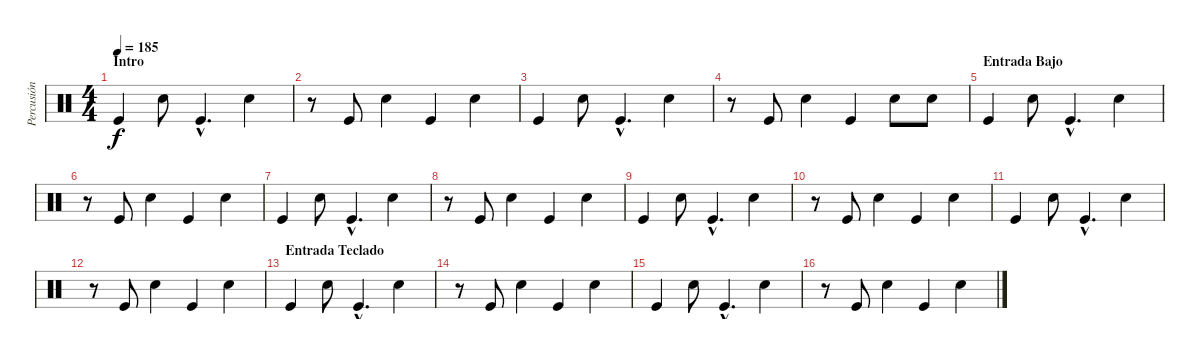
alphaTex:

\track ("Percusión" "Percusión") {instrument percussion}
\staff {score}
\articulation defaults
\ts (4 4)
\section ("" "Intro")
\tempo 185
\clef neutral
\ks c "Kick (hit)".4{dy f} "Electric Snare (hit)".8 "Kick (hit)"{hac}.4{d} "Electric Snare (hit)".4
|
r.8 "Kick (hit)".8 "Electric Snare (hit)".4 "Kick (hit)".4 "Electric Snare (hit)".4 |
"Kick (hit)".4 "Electric Snare (hit)".8 "Kick (hit)"{hac}.4{d} "Electric Snare (hit)".4 |
r.8 "Kick (hit)".8 "Electric Snare (hit)".4 "Kick (hit)".4 "Electric Snare (hit)".8 "Electric Snare (hit)".8 |
\section ("" "Entrada Bajo")
"Kick (hit)".4 "Electric Snare (hit)".8 "Kick (hit)"{hac}.4{d} "Electric Snare (hit)".4 |
r.8 "Kick (hit)".8 "Electric Snare (hit)".4 "Kick (hit)".4 "Electric Snare (hit)".4 |
"Kick (hit)".4 "Electric Snare (hit)".8 "Kick (hit)"{hac}.4{d} "Electric Snare (hit)".4 |
r.8 "Kick (hit)".8 "Electric Snare (hit)".4 "Kick (hit)".4 "Electric Snare (hit)".4 |
"Kick (hit)".4 "Electric Snare (hit)".8 "Kick (hit)"{hac}.4{d} "Electric Snare (hit)".4 |
r.8 "Kick (hit)".8 "Electric Snare (hit)".4 "Kick (hit)".4 "Electric Snare (hit)".4 |
"Kick (hit)".4 "Electric Snare (hit)".8 "Kick (hit)"{hac}.4{d} "Electric Snare (hit)".4 |
r.8 "Kick (hit)".8 "Electric Snare (hit)".4 "Kick (hit)".4 "Electric Snare (hit)".4 |
\section ("" "Entrada Teclado")
"Kick (hit)".4 "Electric Snare (hit)".8 "Kick (hit)"{hac}.4{d} "Electric Snare (hit)".4 |
r.8 "Kick (hit)".8 "Electric Snare (hit)".4 "Kick (hit)".4 "Electric Snare (hit)".4 |
"Kick (hit)".4 "Electric Snare (hit)".8 "Kick (hit)"{hac}.4{d} "Electric Snare (hit)".4 |
r.8 "Kick (hit)".8 "Electric Snare (hit)".4 "Kick (hit)".4 "Electric Snare (hit)".4
